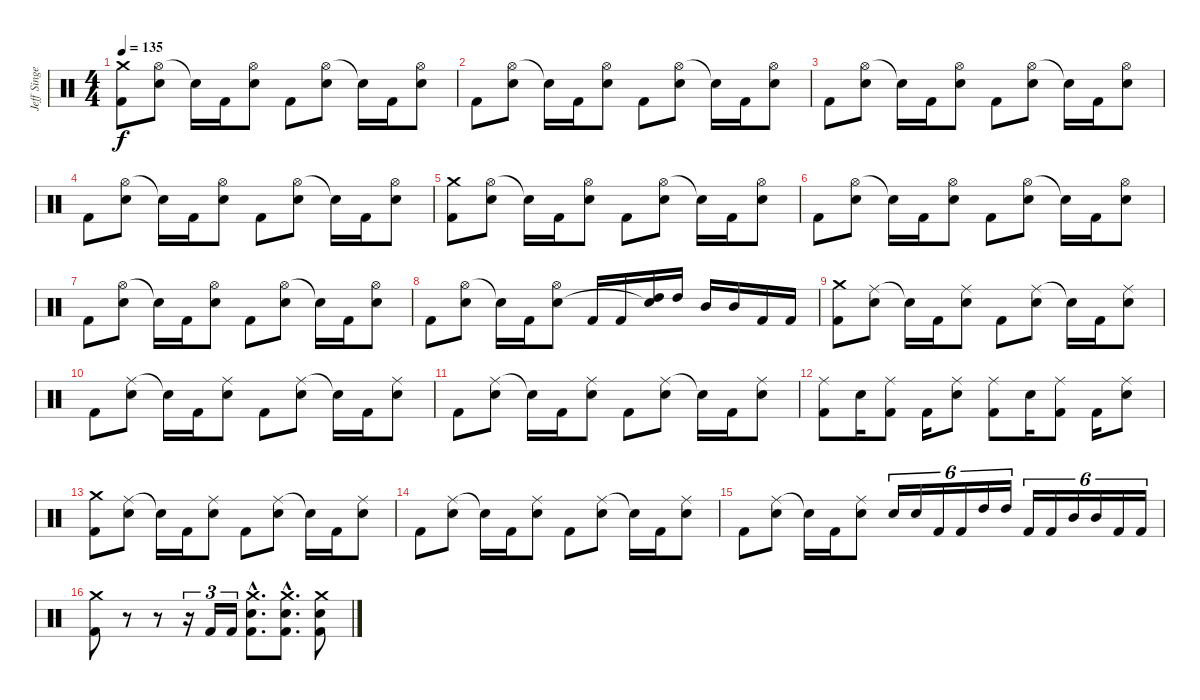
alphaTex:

\track ("Jeff Singer" "Jeff Singe") {instrument percussion}
\staff {score}
\articulation defaults
\ts (4 4)
\tempo 135
\clef neutral
\ks c
("Crash medium (hit)" "Kick (hit) 2").8{dy f} ("Hi-Hat (open)" "Snare (hit) 2").8 "Snare (hit)"{t}.16 "Kick (hit) 2".16 ("Hi-Hat (open)" "Snare (hit) 2").8 "Kick (hit) 2".8 ("Hi-Hat (open)" "Snare (hit) 2").8 "Snare (hit)"{t}.16 "Kick (hit) 2".16 ("Hi-Hat (open)" "Snare (hit) 2").8 |
"Kick (hit) 2".8 ("Hi-Hat (open)" "Snare (hit) 2").8 "Snare (hit)"{t}.16 "Kick (hit) 2".16 ("Hi-Hat (open)" "Snare (hit) 2").8 "Kick (hit) 2".8 ("Hi-Hat (open)" "Snare (hit) 2").8 "Snare (hit)"{t}.16 "Kick (hit) 2".16 ("Hi-Hat (open)" "Snare (hit) 2").8 |
"Kick (hit) 2".8 ("Hi-Hat (open)" "Snare (hit) 2").8 "Snare (hit)"{t}.16 "Kick (hit) 2".16 ("Hi-Hat (open)" "Snare (hit) 2").8 "Kick (hit) 2".8 ("Hi-Hat (open)" "Snare (hit) 2").8 "Snare (hit)"{t}.16 "Kick (hit) 2".16 ("Hi-Hat (open)" "Snare (hit) 2").8 |
"Kick (hit) 2".8 ("Hi-Hat (open)" "Snare (hit) 2").8 "Snare (hit)"{t}.16 "Kick (hit) 2".16 ("Hi-Hat (open)" "Snare (hit) 2").8 "Kick (hit) 2".8 ("Hi-Hat (open)" "Snare (hit) 2").8 "Snare (hit)"{t}.16 "Kick (hit) 2".16 ("Hi-Hat (open)" "Snare (hit) 2").8 |
("Crash medium (hit)" "Kick (hit) 2").8 ("Hi-Hat (open)" "Snare (hit) 2").8 "Snare (hit)"{t}.16 "Kick (hit) 2".16 ("Hi-Hat (open)" "Snare (hit) 2").8 "Kick (hit) 2".8 ("Hi-Hat (open)" "Snare (hit) 2").8 "Snare (hit)"{t}.16 "Kick (hit) 2".16 ("Hi-Hat (open)" "Snare (hit) 2").8 |
"Kick (hit) 2".8 ("Hi-Hat (open)" "Snare (hit) 2").8 "Snare (hit)"{t}.16 "Kick (hit) 2".16 ("Hi-Hat (open)" "Snare (hit) 2").8 "Kick (hit) 2".8 ("Hi-Hat (open)" "Snare (hit) 2").8 "Snare (hit)"{t}.16 "Kick (hit) 2".16 ("Hi-Hat (open)" "Snare (hit) 2").8 |
"Kick (hit) 2".8 ("Hi-Hat (open)" "Snare (hit) 2").8 "Snare (hit)"{t}.16 "Kick (hit) 2".16 ("Hi-Hat (open)" "Snare (hit) 2").8 "Kick (hit) 2".8 ("Hi-Hat (open)" "Snare (hit) 2").8 "Snare (hit)"{t}.16 "Kick (hit) 2".16 ("Hi-Hat (open)" "Snare (hit) 2").8 |
"Kick (hit) 2".8 ("Hi-Hat (open)" "Snare (hit) 2").8 "Snare (hit)"{t}.16 "Kick (hit) 2".16 ("Hi-Hat (open)" "Snare (hit) 2").8 "Kick (hit) 2".16 "Kick (hit) 2".16 ("High Tom (hit)" "Snare (hit)"{t}).16 "High Tom (hit)".16 "Mid Tom (hit)".16 "Mid Tom (hit)".16 "Kick (hit) 2".16 "Kick (hit) 2".16 |
("Crash medium (hit)" "Kick (hit) 2").8 ("Ride (middle)" "Snare (hit) 2").8 "Snare (hit)"{t}.16 "Kick (hit) 2".16 ("Ride (middle)" "Snare (hit) 2").8 "Kick (hit) 2".8 ("Ride (middle)" "Snare (hit) 2").8 "Snare (hit)"{t}.16 "Kick (hit) 2".16 ("Ride (middle)" "Snare (hit) 2").8 |
"Kick (hit) 2".8 ("Ride (middle)" "Snare (hit) 2").8 "Snare (hit)"{t}.16 "Kick (hit) 2".16 ("Ride (middle)" "Snare (hit) 2").8 "Kick (hit) 2".8 ("Ride (middle)" "Snare (hit) 2").8 "Snare (hit)"{t}.16 "Kick (hit) 2".16 ("Ride (middle)" "Snare (hit) 2").8 |
"Kick (hit) 2".8 ("Ride (middle)" "Snare (hit) 2").8 "Snare (hit)"{t}.16 "Kick (hit) 2".16 ("Ride (middle)" "Snare (hit) 2").8 "Kick (hit) 2".8 ("Ride (middle)" "Snare (hit) 2").8 "Snare (hit)"{t}.16 "Kick (hit) 2".16 ("Ride (middle)" "Snare (hit) 2").8 |
("Ride (middle)" "Kick (hit) 2").8 "Snare (hit) 2".16 ("Ride (middle)" "Kick (hit) 2").8 "Kick (hit) 2".16 ("Ride (middle)" "Snare (hit) 2").8 ("Ride (middle)" "Kick (hit) 2").8 "Snare (hit) 2".16 ("Ride (middle)" "Kick (hit) 2").8 "Kick (hit) 2".16 ("Ride (middle)" "Snare (hit) 2").8 |
("Crash medium (hit)" "Kick (hit) 2").8 ("Ride (middle)" "Snare (hit) 2").8 "Snare (hit)"{t}.16 "Kick (hit) 2".16 ("Ride (middle)" "Snare (hit) 2").8 "Kick (hit) 2".8 ("Ride (middle)" "Snare (hit) 2").8 "Snare (hit)"{t}.16 "Kick (hit) 2".16 ("Ride (middle)" "Snare (hit) 2").8 |
"Kick (hit) 2".8 ("Ride (middle)" "Snare (hit) 2").8 "Snare (hit)"{t}.16 "Kick (hit) 2".16 ("Ride (middle)" "Snare (hit) 2").8 "Kick (hit) 2".8 ("Ride (middle)" "Snare (hit) 2").8 "Snare (hit)"{t}.16 "Kick (hit) 2".16 ("Ride (middle)" "Snare (hit) 2").8 |
"Kick (hit) 2".8 ("Ride (middle)" "Snare (hit) 2").8 "Snare (hit)"{t}.16 "Kick (hit) 2".16 ("Ride (middle)" "Snare (hit) 2").8 "Snare (hit) 2".16{tu (6 4)} "Snare (hit) 2".16{tu (6 4)} "Kick (hit) 2".16{tu (6 4)} "Kick (hit) 2".16{tu (6 4)} "High Tom (hit)".16{tu (6 4)} "High Tom (hit)".16{tu (6 4)} "Kick (hit) 2".16{tu (6 4)} "Kick (hit) 2".16{tu (6 4)} "Mid Tom (hit)".16{tu (6 4)} "Mid Tom (hit)".16{tu (6 4)} "Kick (hit) 2".16{tu (6 4)} "Kick (hit) 2".16{tu (6 4)} |
("Crash medium (hit)" "Kick (hit) 2").8 r.8 r.8 r.16{tu (3 2)} "Kick (hit) 2".16{tu (3 2)} "Kick (hit) 2".16{tu (3 2)} ("Crash medium (hit)"{hac} "Snare (hit) 2"{hac} "Kick (hit) 2"{hac}).8{d} ("Crash medium (hit)"{hac} "Snare (hit) 2"{hac} "Kick (hit) 2"{hac}).8{d} ("Crash medium (hit)" "Snare (hit) 2" "Kick (hit) 2").8
